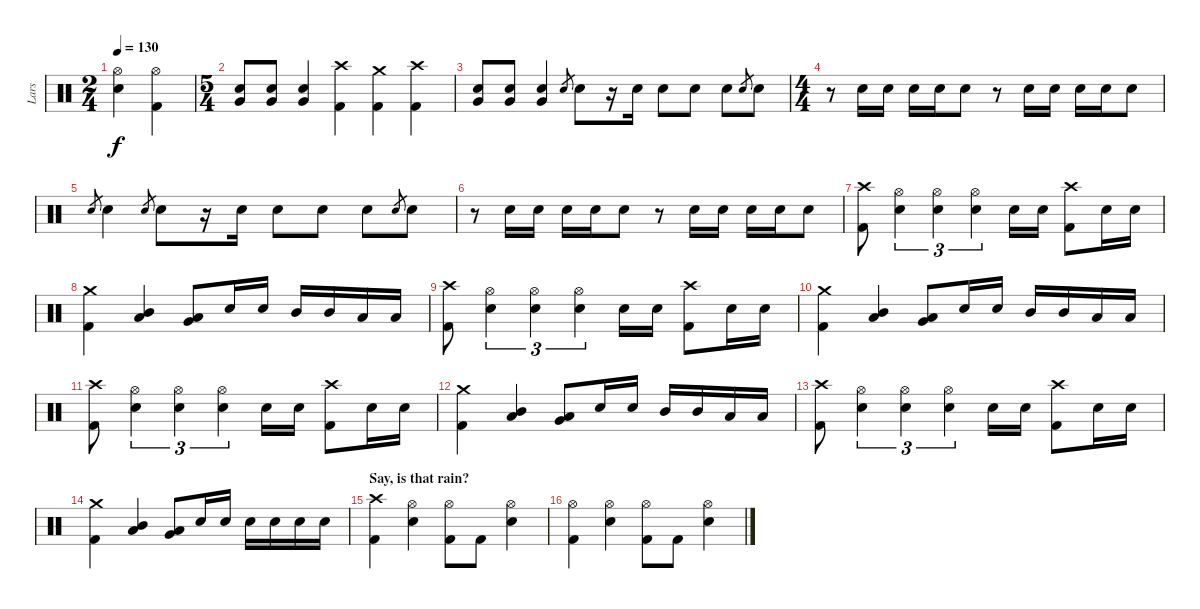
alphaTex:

\track ("Lars" "Lars") {instrument percussion}
\staff {score}
\articulation defaults
\ts (2 4)
\tempo 130
\clef neutral
\ks c
("Electric Snare (hit)" "Hi-Hat (open)").4{dy f} ("Kick (hit) 2" "Hi-Hat (open)").4 |
\ts (5 4)
("Electric Snare (hit)" "Very Low Tom (hit)").8{bu 120} ("Electric Snare (hit)" "Very Low Tom (hit)").8{bu 120} ("Electric Snare (hit)" "Very Low Tom (hit)").4 ("Kick (hit) 2" "Crash high (hit)").4 ("Kick (hit) 2" "Crash medium (hit)").4 ("Kick (hit) 2" "Crash high (hit)").4 |
\section ("" "")
("Electric Snare (hit)" "Very Low Tom (hit)").8{bu 120} ("Electric Snare (hit)" "Very Low Tom (hit)").8{bu 120} ("Electric Snare (hit)" "Very Low Tom (hit)").4 "Electric Snare (hit)".8{gr} "Electric Snare (hit)".8 r.16 "Electric Snare (hit)".16 "Electric Snare (hit)".8 "Electric Snare (hit)".8 "Electric Snare (hit)".8 "Electric Snare (hit)".8{gr} "Electric Snare (hit)".8 |
\ts (4 4)
r.8 "Electric Snare (hit)".16 "Electric Snare (hit)".16 "Electric Snare (hit)".16 "Electric Snare (hit)".16 "Electric Snare (hit)".8 r.8 "Electric Snare (hit)".16 "Electric Snare (hit)".16 "Electric Snare (hit)".16 "Electric Snare (hit)".16 "Electric Snare (hit)".8 |
"Electric Snare (hit)".8{gr} "Electric Snare (hit)".4 "Electric Snare (hit)".8{gr} "Electric Snare (hit)".8 r.16 "Electric Snare (hit)".16 "Electric Snare (hit)".8 "Electric Snare (hit)".8 "Electric Snare (hit)".8 "Electric Snare (hit)".8{gr} "Electric Snare (hit)".8 |
r.8 "Electric Snare (hit)".16 "Electric Snare (hit)".16 "Electric Snare (hit)".16 "Electric Snare (hit)".16 "Electric Snare (hit)".8 r.8 "Electric Snare (hit)".16 "Electric Snare (hit)".16 "Electric Snare (hit)".16 "Electric Snare (hit)".16 "Electric Snare (hit)".8 |
\section ("" "")
("Kick (hit) 2" "Crash high (hit)").8 ("Electric Snare (hit)" "Hi-Hat (open)").4{tu (3 2)} ("Electric Snare (hit)" "Hi-Hat (open)").4{tu (3 2)} ("Electric Snare (hit)" "Hi-Hat (open)").4{tu (3 2)} "Electric Snare (hit)".16 "Electric Snare (hit)".16 ("Kick (hit) 2" "Crash high (hit)").8 "Electric Snare (hit)".16 "Electric Snare (hit)".16 |
("Kick (hit) 2" "Crash medium (hit)").4 ("Mid Tom (hit)" "Low Tom (hit)").4{bu 120} ("Low Tom (hit)" "Very Low Tom (hit)").8{bu 120} "Electric Snare (hit)".16 "Electric Snare (hit)".16 "Mid Tom (hit)".16 "Mid Tom (hit)".16 "Low Tom (hit)".16 "Low Tom (hit)".16 |
("Kick (hit) 2" "Crash high (hit)").8 ("Electric Snare (hit)" "Hi-Hat (open)").4{tu (3 2)} ("Electric Snare (hit)" "Hi-Hat (open)").4{tu (3 2)} ("Electric Snare (hit)" "Hi-Hat (open)").4{tu (3 2)} "Electric Snare (hit)".16 "Electric Snare (hit)".16 ("Kick (hit) 2" "Crash high (hit)").8 "Electric Snare (hit)".16 "Electric Snare (hit)".16 |
("Kick (hit) 2" "Crash medium (hit)").4 ("Mid Tom (hit)" "Low Tom (hit)").4{bu 120} ("Low Tom (hit)" "Very Low Tom (hit)").8{bu 120} "Electric Snare (hit)".16 "Electric Snare (hit)".16 "Mid Tom (hit)".16 "Mid Tom (hit)".16 "Low Tom (hit)".16 "Low Tom (hit)".16 |
("Kick (hit) 2" "Crash high (hit)").8 ("Electric Snare (hit)" "Hi-Hat (open)").4{tu (3 2)} ("Electric Snare (hit)" "Hi-Hat (open)").4{tu (3 2)} ("Electric Snare (hit)" "Hi-Hat (open)").4{tu (3 2)} "Electric Snare (hit)".16 "Electric Snare (hit)".16 ("Kick (hit) 2" "Crash high (hit)").8 "Electric Snare (hit)".16 "Electric Snare (hit)".16 |
("Kick (hit) 2" "Crash medium (hit)").4 ("Mid Tom (hit)" "Low Tom (hit)").4{bu 120} ("Low Tom (hit)" "Very Low Tom (hit)").8{bu 120} "Electric Snare (hit)".16 "Electric Snare (hit)".16 "Mid Tom (hit)".16 "Mid Tom (hit)".16 "Low Tom (hit)".16 "Low Tom (hit)".16 |
("Kick (hit) 2" "Crash high (hit)").8 ("Electric Snare (hit)" "Hi-Hat (open)").4{tu (3 2)} ("Electric Snare (hit)" "Hi-Hat (open)").4{tu (3 2)} ("Electric Snare (hit)" "Hi-Hat (open)").4{tu (3 2)} "Electric Snare (hit)".16 "Electric Snare (hit)".16 ("Kick (hit) 2" "Crash high (hit)").8 "Electric Snare (hit)".16 "Electric Snare (hit)".16 |
("Kick (hit) 2" "Crash medium (hit)").4 ("Mid Tom (hit)" "Low Tom (hit)").4{bu 120} ("Low Tom (hit)" "Very Low Tom (hit)").8{bu 120} "Electric Snare (hit)".16 "Electric Snare (hit)".16 "Electric Snare (hit)".16 "Electric Snare (hit)".16 "Electric Snare (hit)".16 "Electric Snare (hit)".16 |
\section ("" "Say, is that rain?")
("Kick (hit) 2" "Crash high (hit)").4 ("Electric Snare (hit)" "Hi-Hat (open)").4 ("Kick (hit) 2" "Hi-Hat (open)").8 "Kick (hit) 2".8 ("Electric Snare (hit)" "Hi-Hat (open)").4 |
("Kick (hit) 2" "Hi-Hat (open)").4 ("Electric Snare (hit)" "Hi-Hat (open)").4 ("Kick (hit) 2" "Hi-Hat (open)").8 "Kick (hit) 2".8 ("Electric Snare (hit)" "Hi-Hat (open)").4
